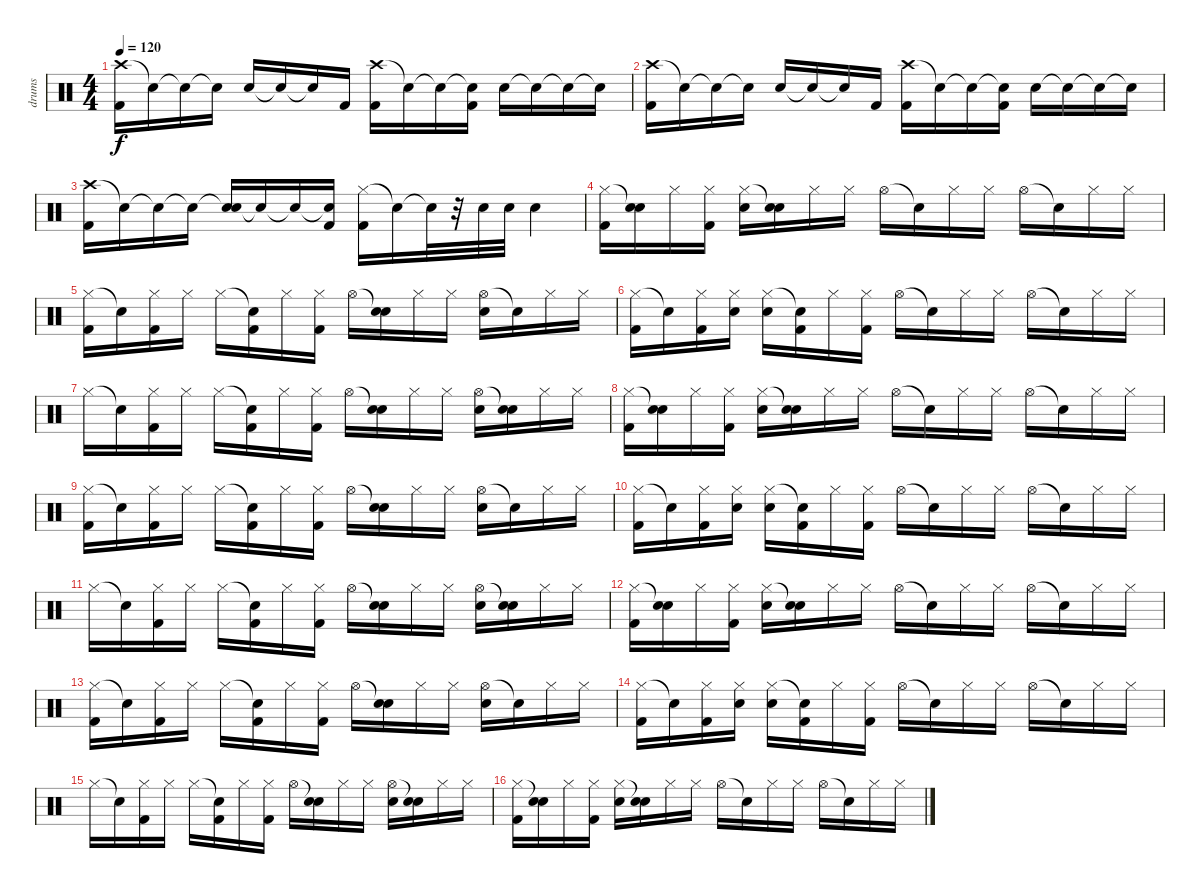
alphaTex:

\track ("drums" "drums") {instrument percussion}
\staff {score}
\articulation defaults
\ts (4 4)
\tempo 120
\clef neutral
\ks c
("Crash high (hit)" "Kick (hit) 2").16{dy f} "Snare (hit)"{t}.16 "Snare (hit)"{t}.16 "Snare (hit)"{t}.16 "Snare (hit) 2".16 "Snare (hit)"{t}.16 "Snare (hit)"{t}.16 "Kick (hit) 2".16 ("Crash high (hit)" "Kick (hit) 2").16 "Snare (hit)"{t}.16 "Snare (hit)"{t}.16 ("Snare (hit)"{t} "Kick (hit) 2").16 "Snare (hit) 2".16 "Snare (hit)"{t}.16 "Snare (hit)"{t}.16 "Snare (hit)"{t}.16 |
("Crash high (hit)" "Kick (hit) 2").16 "Snare (hit)"{t}.16 "Snare (hit)"{t}.16 "Snare (hit)"{t}.16 "Snare (hit) 2".16 "Snare (hit)"{t}.16 "Snare (hit)"{t}.16 "Kick (hit) 2".16 ("Crash high (hit)" "Kick (hit) 2").16 "Snare (hit)"{t}.16 "Snare (hit)"{t}.16 ("Snare (hit)"{t} "Kick (hit) 2").16 "Snare (hit) 2".16 "Snare (hit)"{t}.16 "Snare (hit)"{t}.16 "Snare (hit)"{t}.16 |
("Crash high (hit)" "Kick (hit) 2").16 "Snare (hit)"{t}.16 "Snare (hit)"{t}.16 "Snare (hit)"{t}.16 ("Snare (hit)"{t} "Snare (hit) 2").16 "Snare (hit)"{t}.16 "Snare (hit)"{t}.16 ("Snare (hit)"{t} "Kick (hit) 2").16 ("Hi-Hat (closed)" "Kick (hit) 2").16 "Snare (hit)"{t}.16 "Snare (hit)"{t}.32 r.32 "Snare (hit) 2".32 "Snare (hit) 2".32 "Snare (hit) 2".4 |
("Hi-Hat (closed)" "Kick (hit) 2").16 ("Snare (hit)"{t} "Snare (hit) 2").16 "Hi-Hat (closed)".16 ("Hi-Hat (closed)" "Kick (hit) 2").16 ("Hi-Hat (closed)" "Snare (hit) 2").16 ("Snare (hit)"{t} "Snare (hit) 2").16 "Hi-Hat (closed)".16 "Hi-Hat (closed)".16 "Hi-Hat (open)".16 "Snare (hit)"{t}.16 "Hi-Hat (closed)".16 "Hi-Hat (closed)".16 "Hi-Hat (open)".16 "Snare (hit)"{t}.16 "Hi-Hat (closed)".16 "Hi-Hat (closed)".16 |
("Hi-Hat (closed)" "Kick (hit) 2").16 "Snare (hit)"{t}.16 ("Hi-Hat (closed)" "Kick (hit) 2").16 "Hi-Hat (closed)".16 "Hi-Hat (closed)".16 ("Snare (hit)"{t} "Kick (hit) 2").16 "Hi-Hat (closed)".16 ("Hi-Hat (closed)" "Kick (hit) 2").16 "Hi-Hat (open)".16 ("Snare (hit)"{t} "Snare (hit) 2").16 "Hi-Hat (closed)".16 "Hi-Hat (closed)".16 ("Hi-Hat (open)" "Snare (hit) 2").16 "Snare (hit)"{t}.16 "Hi-Hat (closed)".16 "Hi-Hat (closed)".16 |
("Hi-Hat (closed)" "Kick (hit) 2").16 "Snare (hit)"{t}.16 ("Hi-Hat (closed)" "Kick (hit) 2").16 ("Hi-Hat (closed)" "Snare (hit) 2").16 ("Hi-Hat (closed)" "Snare (hit) 2").16 ("Snare (hit)"{t} "Kick (hit) 2").16 "Hi-Hat (closed)".16 ("Hi-Hat (closed)" "Kick (hit) 2").16 "Hi-Hat (open)".16 "Snare (hit)"{t}.16 "Hi-Hat (closed)".16 "Hi-Hat (closed)".16 "Hi-Hat (open)".16 "Snare (hit)"{t}.16 "Hi-Hat (closed)".16 "Hi-Hat (closed)".16 |
"Hi-Hat (closed)".16 "Snare (hit)"{t}.16 ("Hi-Hat (closed)" "Kick (hit) 2").16 "Hi-Hat (closed)".16 "Hi-Hat (closed)".16 ("Snare (hit)"{t} "Kick (hit) 2").16 "Hi-Hat (closed)".16 ("Hi-Hat (closed)" "Kick (hit) 2").16 "Hi-Hat (open)".16 ("Snare (hit)"{t} "Snare (hit) 2").16 "Hi-Hat (closed)".16 "Hi-Hat (closed)".16 ("Hi-Hat (open)" "Snare (hit) 2").16 ("Snare (hit)"{t} "Snare (hit) 2").16 "Hi-Hat (closed)".16 "Hi-Hat (closed)".16 |
("Hi-Hat (closed)" "Kick (hit) 2").16 ("Snare (hit)"{t} "Snare (hit) 2").16 "Hi-Hat (closed)".16 ("Hi-Hat (closed)" "Kick (hit) 2").16 ("Hi-Hat (closed)" "Snare (hit) 2").16 ("Snare (hit)"{t} "Snare (hit) 2").16 "Hi-Hat (closed)".16 "Hi-Hat (closed)".16 "Hi-Hat (open)".16 "Snare (hit)"{t}.16 "Hi-Hat (closed)".16 "Hi-Hat (closed)".16 "Hi-Hat (open)".16 "Snare (hit)"{t}.16 "Hi-Hat (closed)".16 "Hi-Hat (closed)".16 |
("Hi-Hat (closed)" "Kick (hit) 2").16 "Snare (hit)"{t}.16 ("Hi-Hat (closed)" "Kick (hit) 2").16 "Hi-Hat (closed)".16 "Hi-Hat (closed)".16 ("Snare (hit)"{t} "Kick (hit) 2").16 "Hi-Hat (closed)".16 ("Hi-Hat (closed)" "Kick (hit) 2").16 "Hi-Hat (open)".16 ("Snare (hit)"{t} "Snare (hit) 2").16 "Hi-Hat (closed)".16 "Hi-Hat (closed)".16 ("Hi-Hat (open)" "Snare (hit) 2").16 "Snare (hit)"{t}.16 "Hi-Hat (closed)".16 "Hi-Hat (closed)".16 |
("Hi-Hat (closed)" "Kick (hit) 2").16 "Snare (hit)"{t}.16 ("Hi-Hat (closed)" "Kick (hit) 2").16 ("Hi-Hat (closed)" "Snare (hit) 2").16 ("Hi-Hat (closed)" "Snare (hit) 2").16 ("Snare (hit)"{t} "Kick (hit) 2").16 "Hi-Hat (closed)".16 ("Hi-Hat (closed)" "Kick (hit) 2").16 "Hi-Hat (open)".16 "Snare (hit)"{t}.16 "Hi-Hat (closed)".16 "Hi-Hat (closed)".16 "Hi-Hat (open)".16 "Snare (hit)"{t}.16 "Hi-Hat (closed)".16 "Hi-Hat (closed)".16 |
"Hi-Hat (closed)".16 "Snare (hit)"{t}.16 ("Hi-Hat (closed)" "Kick (hit) 2").16 "Hi-Hat (closed)".16 "Hi-Hat (closed)".16 ("Snare (hit)"{t} "Kick (hit) 2").16 "Hi-Hat (closed)".16 ("Hi-Hat (closed)" "Kick (hit) 2").16 "Hi-Hat (open)".16 ("Snare (hit)"{t} "Snare (hit) 2").16 "Hi-Hat (closed)".16 "Hi-Hat (closed)".16 ("Hi-Hat (open)" "Snare (hit) 2").16 ("Snare (hit)"{t} "Snare (hit) 2").16 "Hi-Hat (closed)".16 "Hi-Hat (closed)".16 |
("Hi-Hat (closed)" "Kick (hit) 2").16 ("Snare (hit)"{t} "Snare (hit) 2").16 "Hi-Hat (closed)".16 ("Hi-Hat (closed)" "Kick (hit) 2").16 ("Hi-Hat (closed)" "Snare (hit) 2").16 ("Snare (hit)"{t} "Snare (hit) 2").16 "Hi-Hat (closed)".16 "Hi-Hat (closed)".16 "Hi-Hat (open)".16 "Snare (hit)"{t}.16 "Hi-Hat (closed)".16 "Hi-Hat (closed)".16 "Hi-Hat (open)".16 "Snare (hit)"{t}.16 "Hi-Hat (closed)".16 "Hi-Hat (closed)".16 |
("Hi-Hat (closed)" "Kick (hit) 2").16 "Snare (hit)"{t}.16 ("Hi-Hat (closed)" "Kick (hit) 2").16 "Hi-Hat (closed)".16 "Hi-Hat (closed)".16 ("Snare (hit)"{t} "Kick (hit) 2").16 "Hi-Hat (closed)".16 ("Hi-Hat (closed)" "Kick (hit) 2").16 "Hi-Hat (open)".16 ("Snare (hit)"{t} "Snare (hit) 2").16 "Hi-Hat (closed)".16 "Hi-Hat (closed)".16 ("Hi-Hat (open)" "Snare (hit) 2").16 "Snare (hit)"{t}.16 "Hi-Hat (closed)".16 "Hi-Hat (closed)".16 |
("Hi-Hat (closed)" "Kick (hit) 2").16 "Snare (hit)"{t}.16 ("Hi-Hat (closed)" "Kick (hit) 2").16 ("Hi-Hat (closed)" "Snare (hit) 2").16 ("Hi-Hat (closed)" "Snare (hit) 2").16 ("Snare (hit)"{t} "Kick (hit) 2").16 "Hi-Hat (closed)".16 ("Hi-Hat (closed)" "Kick (hit) 2").16 "Hi-Hat (open)".16 "Snare (hit)"{t}.16 "Hi-Hat (closed)".16 "Hi-Hat (closed)".16 "Hi-Hat (open)".16 "Snare (hit)"{t}.16 "Hi-Hat (closed)".16 "Hi-Hat (closed)".16 |
"Hi-Hat (closed)".16 "Snare (hit)"{t}.16 ("Hi-Hat (closed)" "Kick (hit) 2").16 "Hi-Hat (closed)".16 "Hi-Hat (closed)".16 ("Snare (hit)"{t} "Kick (hit) 2").16 "Hi-Hat (closed)".16 ("Hi-Hat (closed)" "Kick (hit) 2").16 "Hi-Hat (open)".16 ("Snare (hit)"{t} "Snare (hit) 2").16 "Hi-Hat (closed)".16 "Hi-Hat (closed)".16 ("Hi-Hat (open)" "Snare (hit) 2").16 ("Snare (hit)"{t} "Snare (hit) 2").16 "Hi-Hat (closed)".16 "Hi-Hat (closed)".16 |
("Hi-Hat (closed)" "Kick (hit) 2").16 ("Snare (hit)"{t} "Snare (hit) 2").16 "Hi-Hat (closed)".16 ("Hi-Hat (closed)" "Kick (hit) 2").16 ("Hi-Hat (closed)" "Snare (hit) 2").16 ("Snare (hit)"{t} "Snare (hit) 2").16 "Hi-Hat (closed)".16 "Hi-Hat (closed)".16 "Hi-Hat (open)".16 "Snare (hit)"{t}.16 "Hi-Hat (closed)".16 "Hi-Hat (closed)".16 "Hi-Hat (open)".16 "Snare (hit)"{t}.16 "Hi-Hat (closed)".16 "Hi-Hat (closed)".16
